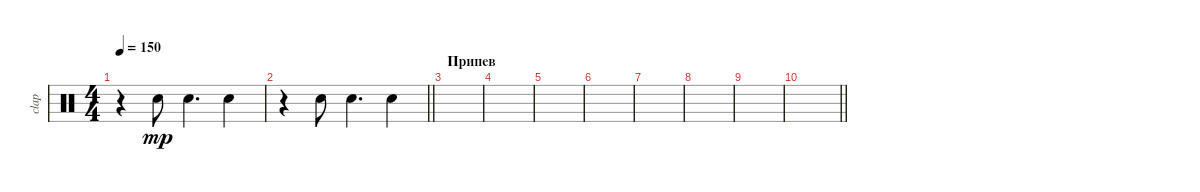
\track ("clap" "clap") {instrument percussion bank 3}
\staff {score}
\articulation defaults
\ts (4 4)
\tempo 150
\clef neutral
\ks c
r.4{dy mp} "Hand Clap (hit)".8 "Hand Clap (hit)".4{d} "Hand Clap (hit)".4 |
\barLineRight lightlight
r.4 "Hand Clap (hit)".8 "Hand Clap (hit)".4{d} "Hand Clap (hit)".4 |
\section ("" "Припев")
|
|
|
|
|
|
|
\barLineRight lightlight
